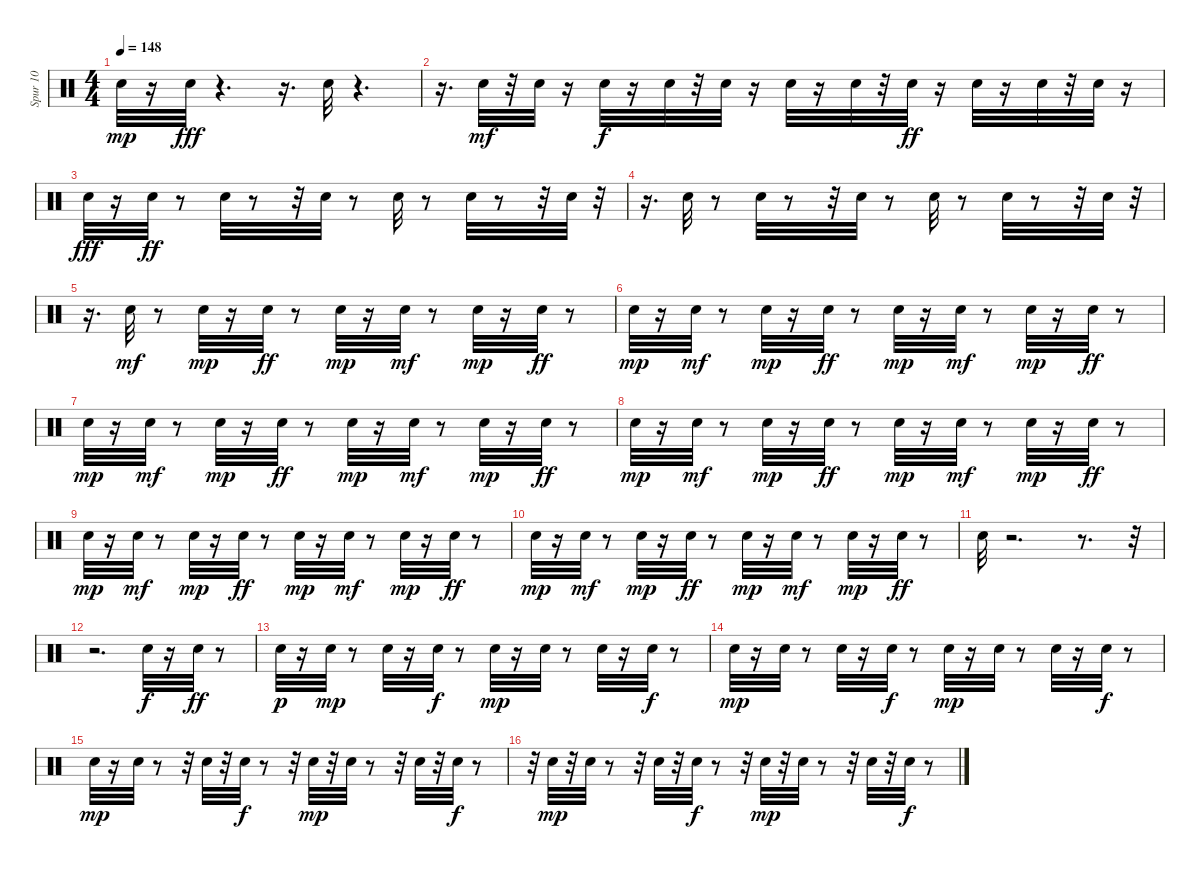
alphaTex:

\track ("Spur 10" "Spur 10") {instrument percussion}
\staff {score}
\articulation defaults
\ts (4 4)
\tempo 148
\clef neutral
\ks c "Snare (hit) 2".32{dy mp}
r.16 "Snare (hit) 2".32{dy fff} r.4{d} r.16{d} "Snare (hit) 2".32 r.4{d} |
r.16{d} "Snare (hit) 2".32{dy mf} r.32 "Snare (hit) 2".32 r.16 "Snare (hit) 2".32{dy f} r.16 "Snare (hit) 2".32 r.32 "Snare (hit) 2".32 r.16 "Snare (hit) 2".32 r.16 "Snare (hit) 2".32 r.32 "Snare (hit) 2".32{dy ff} r.16 "Snare (hit) 2".32 r.16 "Snare (hit) 2".32 r.32 "Snare (hit) 2".32 r.16 |
"Snare (hit) 2".32{dy fff} r.16 "Snare (hit) 2".32{dy ff} r.8 "Snare (hit) 2".32 r.8 r.32 "Snare (hit) 2".32 r.8 "Snare (hit) 2".32 r.8 "Snare (hit) 2".32 r.8 r.32 "Snare (hit) 2".32 r.32 |
r.16{d} "Snare (hit) 2".32 r.8 "Snare (hit) 2".32 r.8 r.32 "Snare (hit) 2".32 r.8 "Snare (hit) 2".32 r.8 "Snare (hit) 2".32 r.8 r.32 "Snare (hit) 2".32 r.32 |
r.16{d} "Snare (hit) 2".32{dy mf} r.8 "Snare (hit) 2".32{dy mp} r.16 "Snare (hit) 2".32{dy ff} r.8 "Snare (hit) 2".32{dy mp} r.16 "Snare (hit) 2".32{dy mf} r.8 "Snare (hit) 2".32{dy mp} r.16 "Snare (hit) 2".32{dy ff} r.8 |
"Snare (hit) 2".32{dy mp} r.16 "Snare (hit) 2".32{dy mf} r.8 "Snare (hit) 2".32{dy mp} r.16 "Snare (hit) 2".32{dy ff} r.8 "Snare (hit) 2".32{dy mp} r.16 "Snare (hit) 2".32{dy mf} r.8 "Snare (hit) 2".32{dy mp} r.16 "Snare (hit) 2".32{dy ff} r.8 |
"Snare (hit) 2".32{dy mp} r.16 "Snare (hit) 2".32{dy mf} r.8 "Snare (hit) 2".32{dy mp} r.16 "Snare (hit) 2".32{dy ff} r.8 "Snare (hit) 2".32{dy mp} r.16 "Snare (hit) 2".32{dy mf} r.8 "Snare (hit) 2".32{dy mp} r.16 "Snare (hit) 2".32{dy ff} r.8 |
"Snare (hit) 2".32{dy mp} r.16 "Snare (hit) 2".32{dy mf} r.8 "Snare (hit) 2".32{dy mp} r.16 "Snare (hit) 2".32{dy ff} r.8 "Snare (hit) 2".32{dy mp} r.16 "Snare (hit) 2".32{dy mf} r.8 "Snare (hit) 2".32{dy mp} r.16 "Snare (hit) 2".32{dy ff} r.8 |
"Snare (hit) 2".32{dy mp} r.16 "Snare (hit) 2".32{dy mf} r.8 "Snare (hit) 2".32{dy mp} r.16 "Snare (hit) 2".32{dy ff} r.8 "Snare (hit) 2".32{dy mp} r.16 "Snare (hit) 2".32{dy mf} r.8 "Snare (hit) 2".32{dy mp} r.16 "Snare (hit) 2".32{dy ff} r.8 |
"Snare (hit) 2".32{dy mp} r.16 "Snare (hit) 2".32{dy mf} r.8 "Snare (hit) 2".32{dy mp} r.16 "Snare (hit) 2".32{dy ff} r.8 "Snare (hit) 2".32{dy mp} r.16 "Snare (hit) 2".32{dy mf} r.8 "Snare (hit) 2".32{dy mp} r.16 "Snare (hit) 2".32{dy ff} r.8 |
"Snare (hit) 2".32 r.2{d} r.8{d} r.32 |
r.2{d} "Snare (hit) 2".32{dy f} r.16 "Snare (hit) 2".32{dy ff} r.8 |
"Snare (hit) 2".32{dy p} r.16 "Snare (hit) 2".32{dy mp} r.8 "Snare (hit) 2".32 r.16 "Snare (hit) 2".32{dy f} r.8 "Snare (hit) 2".32{dy mp} r.16 "Snare (hit) 2".32 r.8 "Snare (hit) 2".32 r.16 "Snare (hit) 2".32{dy f} r.8 |
"Snare (hit) 2".32{dy mp} r.16 "Snare (hit) 2".32 r.8 "Snare (hit) 2".32 r.16 "Snare (hit) 2".32{dy f} r.8 "Snare (hit) 2".32{dy mp} r.16 "Snare (hit) 2".32 r.8 "Snare (hit) 2".32 r.16 "Snare (hit) 2".32{dy f} r.8 |
"Snare (hit) 2".32{dy mp} r.16 "Snare (hit) 2".32 r.8 r.32 "Snare (hit) 2".32 r.32 "Snare (hit) 2".32{dy f} r.8 r.32 "Snare (hit) 2".32{dy mp} r.32 "Snare (hit) 2".32 r.8 r.32 "Snare (hit) 2".32 r.32 "Snare (hit) 2".32{dy f} r.8 |
r.32 "Snare (hit) 2".32{dy mp} r.32 "Snare (hit) 2".32 r.8 r.32 "Snare (hit) 2".32 r.32 "Snare (hit) 2".32{dy f} r.8 r.32 "Snare (hit) 2".32{dy mp} r.32 "Snare (hit) 2".32 r.8 r.32 "Snare (hit) 2".32 r.32 "Snare (hit) 2".32{dy f} r.8
